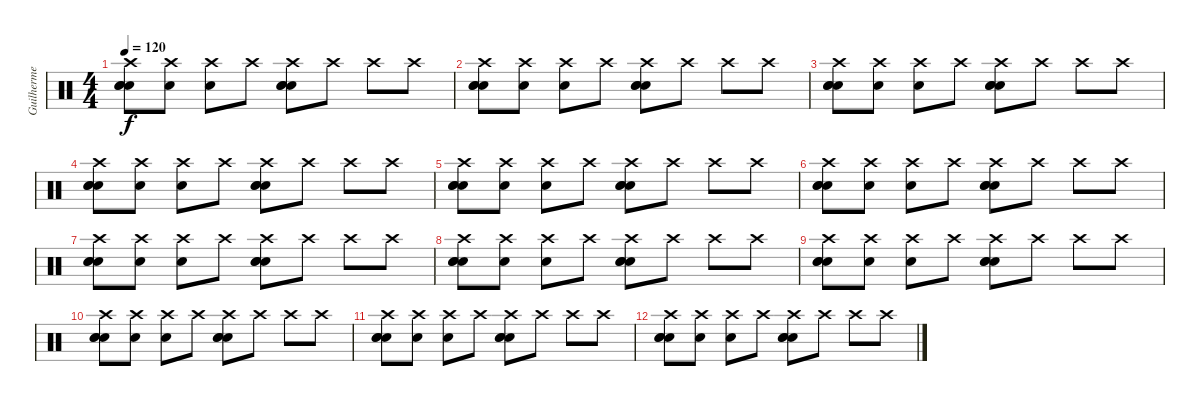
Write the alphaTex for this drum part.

\track ("Guilherme" "Guilherme") {instrument percussion}
\staff {score}
\articulation defaults
\ts (4 4)
\tempo 120
\clef neutral
\ks c
("Crash high (hit)" "Snare (hit) 2" "Snare (hit) 2" "Snare (hit) 2").8{dy f} ("Crash high (hit)" "Electric Snare (hit)").8 ("Crash high (hit)" "Electric Snare (hit)").8 "Crash high (hit)".8 ("Crash high (hit)" "Snare (hit) 2" "Snare (hit) 2" "Snare (hit) 2").8 "Crash high (hit)".8 "Crash high (hit)".8 "Crash high (hit)".8 |
("Crash high (hit)" "Snare (hit) 2" "Snare (hit) 2" "Snare (hit) 2").8 ("Crash high (hit)" "Electric Snare (hit)").8 ("Crash high (hit)" "Electric Snare (hit)").8 "Crash high (hit)".8 ("Crash high (hit)" "Snare (hit) 2" "Snare (hit) 2" "Snare (hit) 2").8 "Crash high (hit)".8 "Crash high (hit)".8 "Crash high (hit)".8 |
("Crash high (hit)" "Snare (hit) 2" "Snare (hit) 2" "Snare (hit) 2").8 ("Crash high (hit)" "Electric Snare (hit)").8 ("Crash high (hit)" "Electric Snare (hit)").8 "Crash high (hit)".8 ("Crash high (hit)" "Snare (hit) 2" "Snare (hit) 2" "Snare (hit) 2").8 "Crash high (hit)".8 "Crash high (hit)".8 "Crash high (hit)".8 |
("Crash high (hit)" "Snare (hit) 2" "Snare (hit) 2" "Snare (hit) 2").8 ("Crash high (hit)" "Electric Snare (hit)").8 ("Crash high (hit)" "Electric Snare (hit)").8 "Crash high (hit)".8 ("Crash high (hit)" "Snare (hit) 2" "Snare (hit) 2" "Snare (hit) 2").8 "Crash high (hit)".8 "Crash high (hit)".8 "Crash high (hit)".8 |
("Crash high (hit)" "Snare (hit) 2" "Snare (hit) 2" "Snare (hit) 2").8 ("Crash high (hit)" "Electric Snare (hit)").8 ("Crash high (hit)" "Electric Snare (hit)").8 "Crash high (hit)".8 ("Crash high (hit)" "Snare (hit) 2" "Snare (hit) 2" "Snare (hit) 2").8 "Crash high (hit)".8 "Crash high (hit)".8 "Crash high (hit)".8 |
("Crash high (hit)" "Snare (hit) 2" "Snare (hit) 2" "Snare (hit) 2").8 ("Crash high (hit)" "Electric Snare (hit)").8 ("Crash high (hit)" "Electric Snare (hit)").8 "Crash high (hit)".8 ("Crash high (hit)" "Snare (hit) 2" "Snare (hit) 2" "Snare (hit) 2").8 "Crash high (hit)".8 "Crash high (hit)".8 "Crash high (hit)".8 |
("Crash high (hit)" "Snare (hit) 2" "Snare (hit) 2" "Snare (hit) 2").8 ("Crash high (hit)" "Electric Snare (hit)").8 ("Crash high (hit)" "Electric Snare (hit)").8 "Crash high (hit)".8 ("Crash high (hit)" "Snare (hit) 2" "Snare (hit) 2" "Snare (hit) 2").8 "Crash high (hit)".8 "Crash high (hit)".8 "Crash high (hit)".8 |
("Crash high (hit)" "Snare (hit) 2" "Snare (hit) 2" "Snare (hit) 2").8 ("Crash high (hit)" "Electric Snare (hit)").8 ("Crash high (hit)" "Electric Snare (hit)").8 "Crash high (hit)".8 ("Crash high (hit)" "Snare (hit) 2" "Snare (hit) 2" "Snare (hit) 2").8 "Crash high (hit)".8 "Crash high (hit)".8 "Crash high (hit)".8 |
("Crash high (hit)" "Snare (hit) 2" "Snare (hit) 2" "Snare (hit) 2").8 ("Crash high (hit)" "Electric Snare (hit)").8 ("Crash high (hit)" "Electric Snare (hit)").8 "Crash high (hit)".8 ("Crash high (hit)" "Snare (hit) 2" "Snare (hit) 2" "Snare (hit) 2").8 "Crash high (hit)".8 "Crash high (hit)".8 "Crash high (hit)".8 |
("Crash high (hit)" "Snare (hit) 2" "Snare (hit) 2" "Snare (hit) 2").8 ("Crash high (hit)" "Electric Snare (hit)").8 ("Crash high (hit)" "Electric Snare (hit)").8 "Crash high (hit)".8 ("Crash high (hit)" "Snare (hit) 2" "Snare (hit) 2" "Snare (hit) 2").8 "Crash high (hit)".8 "Crash high (hit)".8 "Crash high (hit)".8 |
("Crash high (hit)" "Snare (hit) 2" "Snare (hit) 2" "Snare (hit) 2").8 ("Crash high (hit)" "Electric Snare (hit)").8 ("Crash high (hit)" "Electric Snare (hit)").8 "Crash high (hit)".8 ("Crash high (hit)" "Snare (hit) 2" "Snare (hit) 2" "Snare (hit) 2").8 "Crash high (hit)".8 "Crash high (hit)".8 "Crash high (hit)".8 |
("Crash high (hit)" "Snare (hit) 2" "Snare (hit) 2" "Snare (hit) 2").8 ("Crash high (hit)" "Electric Snare (hit)").8 ("Crash high (hit)" "Electric Snare (hit)").8 "Crash high (hit)".8 ("Crash high (hit)" "Snare (hit) 2" "Snare (hit) 2" "Snare (hit) 2").8 "Crash high (hit)".8 "Crash high (hit)".8 "Crash high (hit)".8
